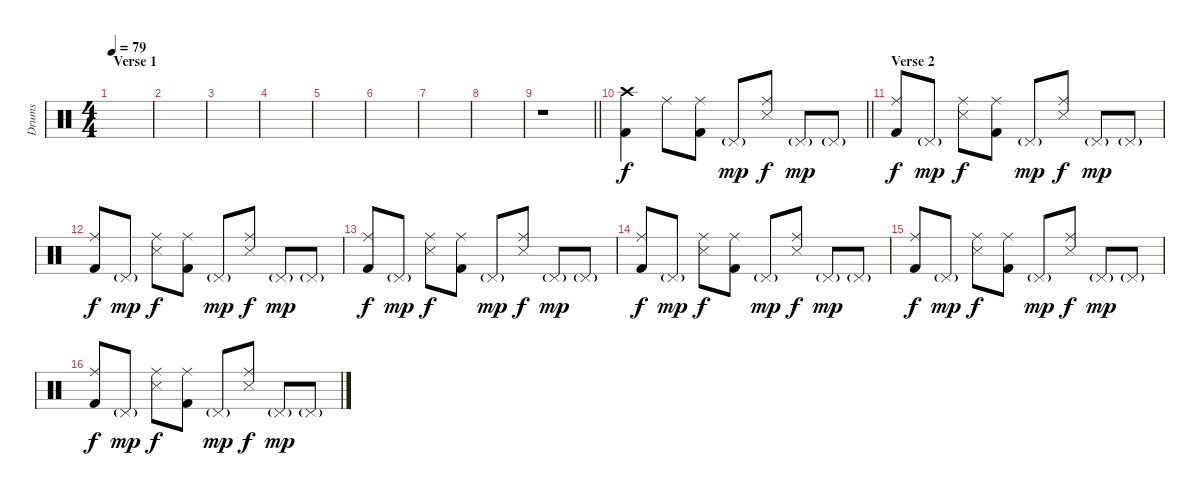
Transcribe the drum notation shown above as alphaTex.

\track ("Drums" "Drums") {instrument percussion}
\staff {score}
\articulation defaults
\ts (4 4)
\section ("" "Verse 1")
\tempo 79
\clef neutral
\ks c
|
|
|
|
|
|
|
|
\barLineRight lightlight
r.1 |
\barLineRight lightlight
("Crash high (hit)" "Kick (hit) 2").4 "Ride (middle)".8 ("Ride (middle)" "Kick (hit) 2").8 "Pedal Hi-Hat (hit)"{g}.8{dy mp} ("Ride (middle)" "Snare (side stick) 3").8{dy f} "Pedal Hi-Hat (hit)"{g}.8{dy mp} "Pedal Hi-Hat (hit)"{g}.8 |
\section ("" "Verse 2")
("Ride (middle)" "Kick (hit) 2").8{dy f} "Pedal Hi-Hat (hit)"{g}.8{dy mp} ("Ride (middle)" "Snare (side stick) 3").8{dy f} ("Ride (middle)" "Kick (hit) 2").8 "Pedal Hi-Hat (hit)"{g}.8{dy mp} ("Ride (middle)" "Snare (side stick) 3").8{dy f} "Pedal Hi-Hat (hit)"{g}.8{dy mp} "Pedal Hi-Hat (hit)"{g}.8 |
("Ride (middle)" "Kick (hit) 2").8{dy f} "Pedal Hi-Hat (hit)"{g}.8{dy mp} ("Ride (middle)" "Snare (side stick) 3").8{dy f} ("Ride (middle)" "Kick (hit) 2").8 "Pedal Hi-Hat (hit)"{g}.8{dy mp} ("Ride (middle)" "Snare (side stick) 3").8{dy f} "Pedal Hi-Hat (hit)"{g}.8{dy mp} "Pedal Hi-Hat (hit)"{g}.8 |
("Ride (middle)" "Kick (hit) 2").8{dy f} "Pedal Hi-Hat (hit)"{g}.8{dy mp} ("Ride (middle)" "Snare (side stick) 3").8{dy f} ("Ride (middle)" "Kick (hit) 2").8 "Pedal Hi-Hat (hit)"{g}.8{dy mp} ("Ride (middle)" "Snare (side stick) 3").8{dy f} "Pedal Hi-Hat (hit)"{g}.8{dy mp} "Pedal Hi-Hat (hit)"{g}.8 |
("Ride (middle)" "Kick (hit) 2").8{dy f} "Pedal Hi-Hat (hit)"{g}.8{dy mp} ("Ride (middle)" "Snare (side stick) 3").8{dy f} ("Ride (middle)" "Kick (hit) 2").8 "Pedal Hi-Hat (hit)"{g}.8{dy mp} ("Ride (middle)" "Snare (side stick) 3").8{dy f} "Pedal Hi-Hat (hit)"{g}.8{dy mp} "Pedal Hi-Hat (hit)"{g}.8 |
("Ride (middle)" "Kick (hit) 2").8{dy f} "Pedal Hi-Hat (hit)"{g}.8{dy mp} ("Ride (middle)" "Snare (side stick) 3").8{dy f} ("Ride (middle)" "Kick (hit) 2").8 "Pedal Hi-Hat (hit)"{g}.8{dy mp} ("Ride (middle)" "Snare (side stick) 3").8{dy f} "Pedal Hi-Hat (hit)"{g}.8{dy mp} "Pedal Hi-Hat (hit)"{g}.8 |
("Ride (middle)" "Kick (hit) 2").8{dy f} "Pedal Hi-Hat (hit)"{g}.8{dy mp} ("Ride (middle)" "Snare (side stick) 3").8{dy f} ("Ride (middle)" "Kick (hit) 2").8 "Pedal Hi-Hat (hit)"{g}.8{dy mp} ("Ride (middle)" "Snare (side stick) 3").8{dy f} "Pedal Hi-Hat (hit)"{g}.8{dy mp} "Pedal Hi-Hat (hit)"{g}.8
